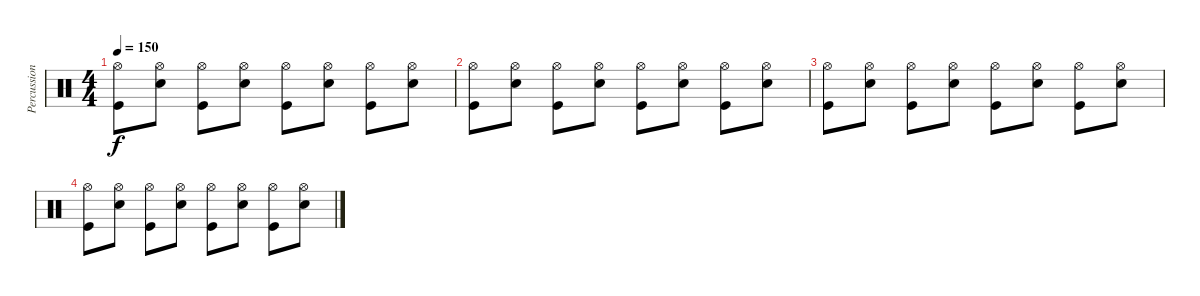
\track ("Percussion" "Percussion") {instrument percussion}
\staff {score}
\articulation defaults
\ts (4 4)
\tempo 150
\clef neutral
\ks c
("Hi-Hat (open)" "Kick (hit)").8{dy f} ("Hi-Hat (open)" "Snare (hit) 2").8 ("Hi-Hat (open)" "Kick (hit)").8 ("Hi-Hat (open)" "Snare (hit) 2").8 ("Hi-Hat (open)" "Kick (hit)").8 ("Hi-Hat (open)" "Snare (hit) 2").8 ("Hi-Hat (open)" "Kick (hit)").8 ("Hi-Hat (open)" "Snare (hit) 2").8 |
("Hi-Hat (open)" "Kick (hit)").8 ("Hi-Hat (open)" "Snare (hit) 2").8 ("Hi-Hat (open)" "Kick (hit)").8 ("Hi-Hat (open)" "Snare (hit) 2").8 ("Hi-Hat (open)" "Kick (hit)").8 ("Hi-Hat (open)" "Snare (hit) 2").8 ("Hi-Hat (open)" "Kick (hit)").8 ("Hi-Hat (open)" "Snare (hit) 2").8 |
("Hi-Hat (open)" "Kick (hit)").8 ("Hi-Hat (open)" "Snare (hit) 2").8 ("Hi-Hat (open)" "Kick (hit)").8 ("Hi-Hat (open)" "Snare (hit) 2").8 ("Hi-Hat (open)" "Kick (hit)").8 ("Hi-Hat (open)" "Snare (hit) 2").8 ("Hi-Hat (open)" "Kick (hit)").8 ("Hi-Hat (open)" "Snare (hit) 2").8 |
("Hi-Hat (open)" "Kick (hit)").8 ("Hi-Hat (open)" "Snare (hit) 2").8 ("Hi-Hat (open)" "Kick (hit)").8 ("Hi-Hat (open)" "Snare (hit) 2").8 ("Hi-Hat (open)" "Kick (hit)").8 ("Hi-Hat (open)" "Snare (hit) 2").8 ("Hi-Hat (open)" "Kick (hit)").8 ("Hi-Hat (open)" "Snare (hit) 2").8
